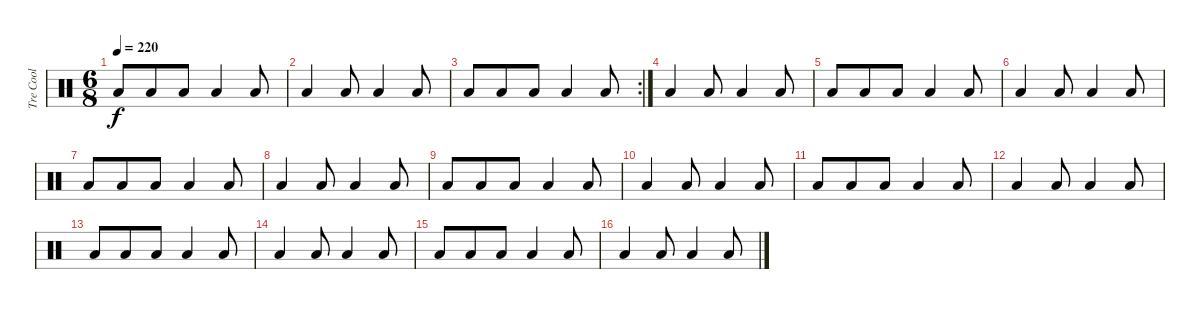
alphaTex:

\track ("Tre Cool" "Tre Cool") {instrument percussion}
\staff {score}
\articulation defaults
\ts (6 8)
\tempo 220
\clef neutral
\ks c "Low Floor Tom (hit)".8{dy f} "Low Floor Tom (hit)".8 "Low Floor Tom (hit)".8 "Low Tom (hit)".4 "Low Tom (hit)".8
|
"Low Floor Tom (hit)".4 "Low Floor Tom (hit)".8 "Low Tom (hit)".4 "Low Tom (hit)".8 |
\rc 2 "Low Floor Tom (hit)".8 "Low Floor Tom (hit)".8 "Low Floor Tom (hit)".8 "Low Tom (hit)".4 "Low Tom (hit)".8
|
"Low Floor Tom (hit)".4 "Low Floor Tom (hit)".8 "Low Tom (hit)".4 "Low Tom (hit)".8 |
"Low Floor Tom (hit)".8 "Low Floor Tom (hit)".8 "Low Floor Tom (hit)".8 "Low Tom (hit)".4 "Low Tom (hit)".8 |
"Low Floor Tom (hit)".4 "Low Floor Tom (hit)".8 "Low Tom (hit)".4 "Low Tom (hit)".8 |
"Low Floor Tom (hit)".8 "Low Floor Tom (hit)".8 "Low Floor Tom (hit)".8 "Low Tom (hit)".4 "Low Tom (hit)".8 |
"Low Floor Tom (hit)".4 "Low Floor Tom (hit)".8 "Low Tom (hit)".4 "Low Tom (hit)".8 |
"Low Floor Tom (hit)".8 "Low Floor Tom (hit)".8 "Low Floor Tom (hit)".8 "Low Tom (hit)".4 "Low Tom (hit)".8 |
"Low Floor Tom (hit)".4 "Low Floor Tom (hit)".8 "Low Tom (hit)".4 "Low Tom (hit)".8 |
"Low Floor Tom (hit)".8 "Low Floor Tom (hit)".8 "Low Floor Tom (hit)".8 "Low Tom (hit)".4 "Low Tom (hit)".8 |
"Low Floor Tom (hit)".4 "Low Floor Tom (hit)".8 "Low Tom (hit)".4 "Low Tom (hit)".8 |
"Low Floor Tom (hit)".8 "Low Floor Tom (hit)".8 "Low Floor Tom (hit)".8 "Low Tom (hit)".4 "Low Tom (hit)".8 |
"Low Floor Tom (hit)".4 "Low Floor Tom (hit)".8 "Low Tom (hit)".4 "Low Tom (hit)".8 |
"Low Floor Tom (hit)".8 "Low Floor Tom (hit)".8 "Low Floor Tom (hit)".8 "Low Tom (hit)".4 "Low Tom (hit)".8 |
"Low Floor Tom (hit)".4 "Low Floor Tom (hit)".8 "Low Tom (hit)".4 "Low Tom (hit)".8
